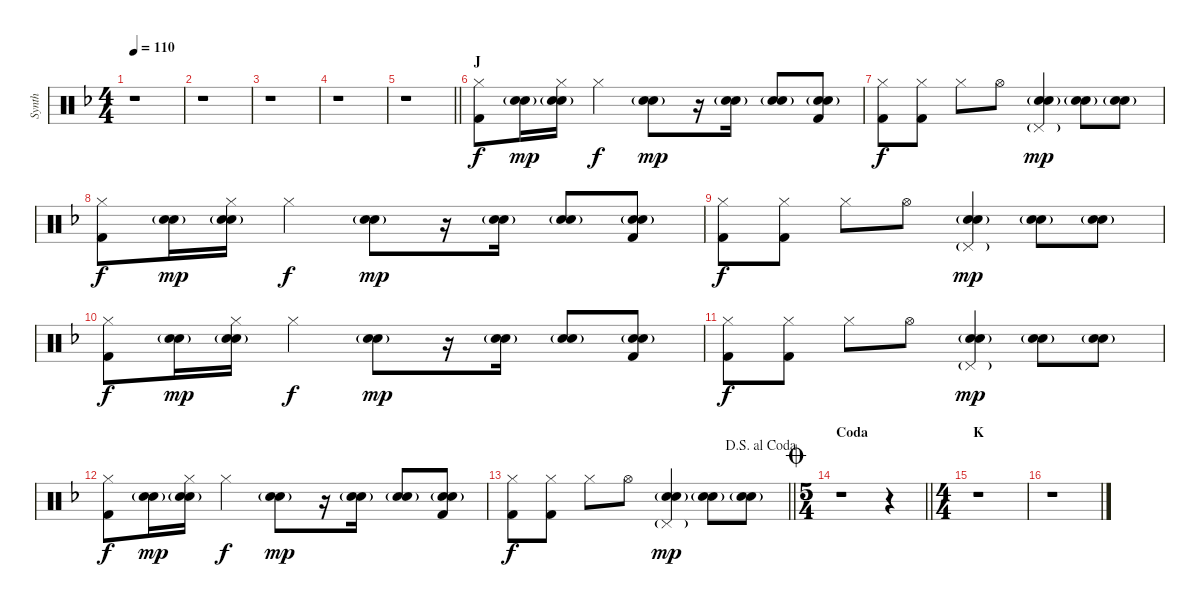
\track ("Synth" "Synth") {instrument percussion}
\staff {score}
\articulation defaults
\ts (4 4)
\tempo 110
\clef neutral
\ks dminor
r.1{dy mp} |
r.1 |
r.1 |
r.1 |
\barLineRight lightlight
r.1 |
\section ("" "J")
("Hi-Hat (closed)" "Kick (hit) 2").8{dy f} ("Snare (hit) 2"{g} "Electric Snare (hit)").16{dy mp} ("Hi-Hat (closed)" "Snare (hit) 2"{g} "Electric Snare (hit)").16 "Hi-Hat (closed)".4{dy f} ("Snare (hit) 2"{g} "Electric Snare (hit)").8{dy mp} r.16 ("Snare (hit) 2"{g} "Electric Snare (hit)").16 ("Snare (hit) 2"{g} "Electric Snare (hit)").8 ("Snare (hit) 2"{g} "Electric Snare (hit)" "Kick (hit) 2").8 |
("Hi-Hat (closed)" "Kick (hit) 2").8{dy f} ("Hi-Hat (closed)" "Kick (hit) 2").8 "Hi-Hat (closed)".8 "Hi-Hat (open)".8 ("Pedal Hi-Hat (hit)"{g} "Snare (hit) 2"{g} "Electric Snare (hit)").4{dy mp} ("Snare (hit) 2"{g} "Electric Snare (hit)").8 ("Snare (hit) 2"{g} "Electric Snare (hit)").8 |
("Hi-Hat (closed)" "Kick (hit) 2").8{dy f} ("Snare (hit) 2"{g} "Electric Snare (hit)").16{dy mp} ("Hi-Hat (closed)" "Snare (hit) 2"{g} "Electric Snare (hit)").16 "Hi-Hat (closed)".4{dy f} ("Snare (hit) 2"{g} "Electric Snare (hit)").8{dy mp} r.16 ("Snare (hit) 2"{g} "Electric Snare (hit)").16 ("Snare (hit) 2"{g} "Electric Snare (hit)").8 ("Snare (hit) 2"{g} "Electric Snare (hit)" "Kick (hit) 2").8 |
("Hi-Hat (closed)" "Kick (hit) 2").8{dy f} ("Hi-Hat (closed)" "Kick (hit) 2").8 "Hi-Hat (closed)".8 "Hi-Hat (open)".8 ("Pedal Hi-Hat (hit)"{g} "Snare (hit) 2"{g} "Electric Snare (hit)").4{dy mp} ("Snare (hit) 2"{g} "Electric Snare (hit)").8 ("Snare (hit) 2"{g} "Electric Snare (hit)").8 |
("Hi-Hat (closed)" "Kick (hit) 2").8{dy f} ("Snare (hit) 2"{g} "Electric Snare (hit)").16{dy mp} ("Hi-Hat (closed)" "Snare (hit) 2"{g} "Electric Snare (hit)").16 "Hi-Hat (closed)".4{dy f} ("Snare (hit) 2"{g} "Electric Snare (hit)").8{dy mp} r.16 ("Snare (hit) 2"{g} "Electric Snare (hit)").16 ("Snare (hit) 2"{g} "Electric Snare (hit)").8 ("Snare (hit) 2"{g} "Electric Snare (hit)" "Kick (hit) 2").8 |
("Hi-Hat (closed)" "Kick (hit) 2").8{dy f} ("Hi-Hat (closed)" "Kick (hit) 2").8 "Hi-Hat (closed)".8 "Hi-Hat (open)".8 ("Pedal Hi-Hat (hit)"{g} "Snare (hit) 2"{g} "Electric Snare (hit)").4{dy mp} ("Snare (hit) 2"{g} "Electric Snare (hit)").8 ("Snare (hit) 2"{g} "Electric Snare (hit)").8 |
("Hi-Hat (closed)" "Kick (hit) 2").8{dy f} ("Snare (hit) 2"{g} "Electric Snare (hit)").16{dy mp} ("Hi-Hat (closed)" "Snare (hit) 2"{g} "Electric Snare (hit)").16 "Hi-Hat (closed)".4{dy f} ("Snare (hit) 2"{g} "Electric Snare (hit)").8{dy mp} r.16 ("Snare (hit) 2"{g} "Electric Snare (hit)").16 ("Snare (hit) 2"{g} "Electric Snare (hit)").8 ("Snare (hit) 2"{g} "Electric Snare (hit)" "Kick (hit) 2").8 |
\jump dalsegnoalcoda
\barLineRight lightlight
("Hi-Hat (closed)" "Kick (hit) 2").8{dy f} ("Hi-Hat (closed)" "Kick (hit) 2").8 "Hi-Hat (closed)".8 "Hi-Hat (open)".8 ("Pedal Hi-Hat (hit)"{g} "Snare (hit) 2"{g} "Electric Snare (hit)").4{dy mp} ("Snare (hit) 2"{g} "Electric Snare (hit)").8 ("Snare (hit) 2"{g} "Electric Snare (hit)").8 |
\ts (5 4)
\section ("" "Coda")
\jump coda
\barLineRight lightlight
r.1 r.4 |
\ts (4 4)
\section ("" "K")
r.1 |
r.1
